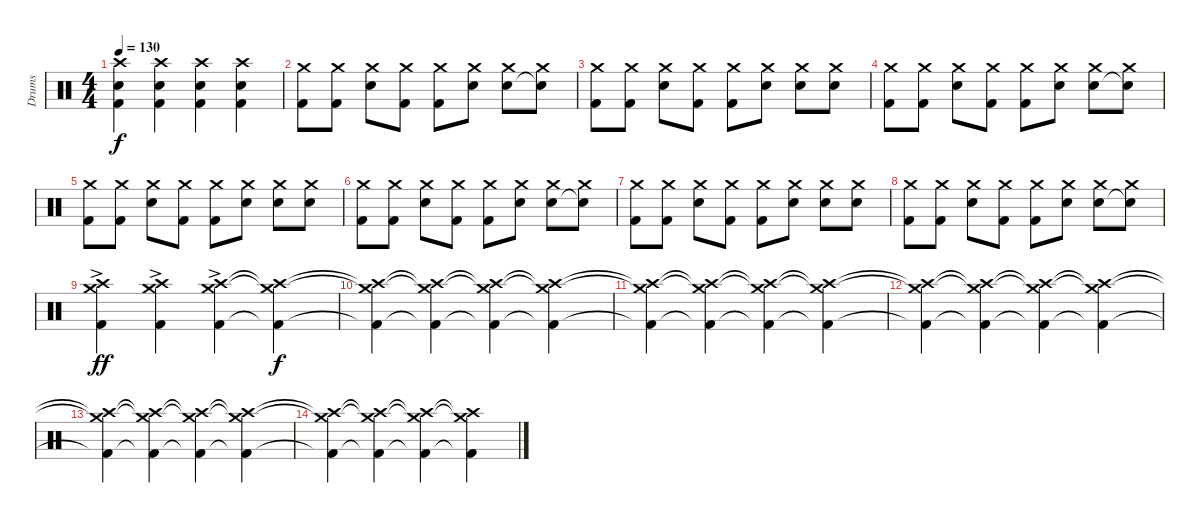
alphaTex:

\track ("Drums" "Drums") {instrument percussion}
\staff {score}
\articulation defaults
\ts (4 4)
\tempo 130
\clef neutral
\ks c
("Crash high (hit)" "Kick (hit) 2" "Snare (hit) 2").4{dy f} ("Crash high (hit)" "Kick (hit) 2" "Snare (hit) 2").4 ("Crash high (hit)" "Kick (hit) 2" "Snare (hit) 2").4 ("Crash high (hit)" "Kick (hit) 2" "Snare (hit) 2").4 |
("Crash medium (hit)" "Kick (hit) 2").8 ("Crash medium (hit)" "Kick (hit) 2").8 ("Crash medium (hit)" "Snare (hit) 2").8 ("Crash medium (hit)" "Kick (hit) 2").8 ("Crash medium (hit)" "Kick (hit) 2").8 ("Crash medium (hit)" "Snare (hit) 2").8 ("Crash medium (hit)" "Snare (hit) 2").8 ("Crash medium (hit)" "Snare (hit) 2"{t}).8 |
("Crash medium (hit)" "Kick (hit) 2").8 ("Crash medium (hit)" "Kick (hit) 2").8 ("Crash medium (hit)" "Snare (hit) 2").8 ("Crash medium (hit)" "Kick (hit) 2").8 ("Crash medium (hit)" "Kick (hit) 2").8 ("Crash medium (hit)" "Snare (hit) 2").8 ("Crash medium (hit)" "Snare (hit) 2").8 ("Crash medium (hit)" "Snare (hit) 2").8 |
("Crash medium (hit)" "Kick (hit) 2").8 ("Crash medium (hit)" "Kick (hit) 2").8 ("Crash medium (hit)" "Snare (hit) 2").8 ("Crash medium (hit)" "Kick (hit) 2").8 ("Crash medium (hit)" "Kick (hit) 2").8 ("Crash medium (hit)" "Snare (hit) 2").8 ("Crash medium (hit)" "Snare (hit) 2").8 ("Crash medium (hit)" "Snare (hit) 2"{t}).8 |
("Crash medium (hit)" "Kick (hit) 2").8 ("Crash medium (hit)" "Kick (hit) 2").8 ("Crash medium (hit)" "Snare (hit) 2").8 ("Crash medium (hit)" "Kick (hit) 2").8 ("Crash medium (hit)" "Kick (hit) 2").8 ("Crash medium (hit)" "Snare (hit) 2").8 ("Crash medium (hit)" "Snare (hit) 2").8 ("Crash medium (hit)" "Snare (hit) 2").8 |
("Crash medium (hit)" "Kick (hit) 2").8 ("Crash medium (hit)" "Kick (hit) 2").8 ("Crash medium (hit)" "Snare (hit) 2").8 ("Crash medium (hit)" "Kick (hit) 2").8 ("Crash medium (hit)" "Kick (hit) 2").8 ("Crash medium (hit)" "Snare (hit) 2").8 ("Crash medium (hit)" "Snare (hit) 2").8 ("Crash medium (hit)" "Snare (hit) 2"{t}).8 |
("Crash medium (hit)" "Kick (hit) 2").8 ("Crash medium (hit)" "Kick (hit) 2").8 ("Crash medium (hit)" "Snare (hit) 2").8 ("Crash medium (hit)" "Kick (hit) 2").8 ("Crash medium (hit)" "Kick (hit) 2").8 ("Crash medium (hit)" "Snare (hit) 2").8 ("Crash medium (hit)" "Snare (hit) 2").8 ("Crash medium (hit)" "Snare (hit) 2").8 |
("Crash medium (hit)" "Kick (hit) 2").8 ("Crash medium (hit)" "Kick (hit) 2").8 ("Crash medium (hit)" "Snare (hit) 2").8 ("Crash medium (hit)" "Kick (hit) 2").8 ("Crash medium (hit)" "Kick (hit) 2").8 ("Crash medium (hit)" "Snare (hit) 2").8 ("Crash medium (hit)" "Snare (hit) 2").8 ("Crash medium (hit)" "Snare (hit) 2"{t}).8 |
("Crash medium (hit)"{ac} "Crash high (hit)"{ac} "Kick (hit) 2"{ac}).4{dy ff} ("Crash medium (hit)"{ac} "Crash high (hit)"{ac} "Kick (hit) 2"{ac}).4 ("Crash medium (hit)"{ac} "Crash high (hit)"{ac} "Kick (hit) 2"{ac}).4 ("Crash medium (hit)"{t} "Crash high (hit)"{t} "Kick (hit) 2"{t}).4{dy f} |
("Crash medium (hit)"{t} "Crash high (hit)"{t} "Kick (hit) 2"{t}).4 ("Crash medium (hit)"{t} "Crash high (hit)"{t} "Kick (hit) 2"{t}).4 ("Crash medium (hit)"{t} "Crash high (hit)"{t} "Kick (hit) 2"{t}).4 ("Crash medium (hit)"{t} "Crash high (hit)"{t} "Kick (hit) 2"{t}).4 |
("Crash medium (hit)"{t} "Crash high (hit)"{t} "Kick (hit) 2"{t}).4 ("Crash medium (hit)"{t} "Crash high (hit)"{t} "Kick (hit) 2"{t}).4 ("Crash medium (hit)"{t} "Crash high (hit)"{t} "Kick (hit) 2"{t}).4 ("Crash medium (hit)"{t} "Crash high (hit)"{t} "Kick (hit) 2"{t}).4 |
("Crash medium (hit)"{t} "Crash high (hit)"{t} "Kick (hit) 2"{t}).4 ("Crash medium (hit)"{t} "Crash high (hit)"{t} "Kick (hit) 2"{t}).4 ("Crash medium (hit)"{t} "Crash high (hit)"{t} "Kick (hit) 2"{t}).4 ("Crash medium (hit)"{t} "Crash high (hit)"{t} "Kick (hit) 2"{t}).4 |
("Crash medium (hit)"{t} "Crash high (hit)"{t} "Kick (hit) 2"{t}).4 ("Crash medium (hit)"{t} "Crash high (hit)"{t} "Kick (hit) 2"{t}).4 ("Crash medium (hit)"{t} "Crash high (hit)"{t} "Kick (hit) 2"{t}).4 ("Crash medium (hit)"{t} "Crash high (hit)"{t} "Kick (hit) 2"{t}).4 |
("Crash medium (hit)"{t} "Crash high (hit)"{t} "Kick (hit) 2"{t}).4 ("Crash medium (hit)"{t} "Crash high (hit)"{t} "Kick (hit) 2"{t}).4 ("Crash medium (hit)"{t} "Crash high (hit)"{t} "Kick (hit) 2"{t}).4 ("Crash medium (hit)"{t} "Crash high (hit)"{t} "Kick (hit) 2"{t}).4
